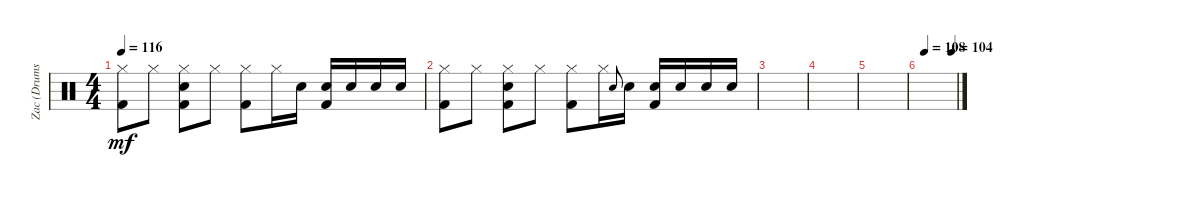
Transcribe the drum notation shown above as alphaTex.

\track ("Zac (Drums)" "Zac (Drums") {instrument percussion}
\staff {score}
\articulation defaults
\ts (4 4)
\tempo 116
\clef neutral
\ks c
("Hi-Hat (closed)" "Kick (hit) 2").8{dy mf} "Hi-Hat (closed)".8 ("Hi-Hat (closed)" "Electric Snare (hit)" "Kick (hit) 2").8 "Hi-Hat (closed)".8 ("Hi-Hat (closed)" "Kick (hit) 2").8 "Hi-Hat (closed)".16 "Electric Snare (hit)".16 ("Electric Snare (hit)" "Kick (hit) 2").16 "Electric Snare (hit)".16 "Electric Snare (hit)".16 "Electric Snare (hit)".16 |
("Hi-Hat (closed)" "Kick (hit) 2").8 "Hi-Hat (closed)".8 ("Hi-Hat (closed)" "Electric Snare (hit)" "Kick (hit) 2").8 "Hi-Hat (closed)".8 ("Hi-Hat (closed)" "Kick (hit) 2").8 "Hi-Hat (closed)".16 "Electric Snare (hit)".8{gr onbeat} "Electric Snare (hit)".16 ("Electric Snare (hit)" "Kick (hit) 2").16 "Electric Snare (hit)".16 "Electric Snare (hit)".16 "Electric Snare (hit)".16 |
|
|
|
\tempo (108 0.125)
\tempo (104 0.875)
